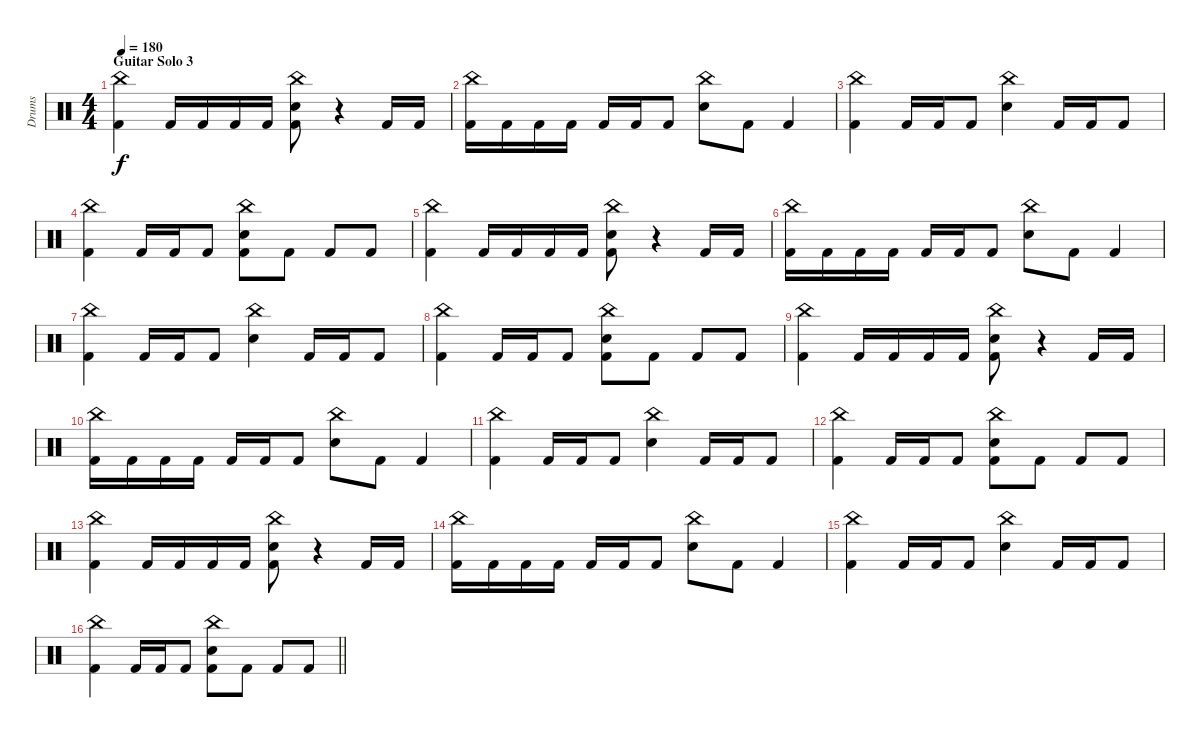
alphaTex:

\track ("Drums" "Drums") {instrument percussion}
\staff {score}
\articulation defaults
\ts (4 4)
\section ("" "Guitar Solo 3")
\tempo 180
\clef neutral
\ks c
("China (hit)" "Kick (hit) 2").4{dy f} "Kick (hit) 2".16 "Kick (hit) 2".16 "Kick (hit) 2".16 "Kick (hit) 2".16 ("China (hit)" "Electric Snare (hit)" "Kick (hit) 2").8 r.4 "Kick (hit) 2".16 "Kick (hit) 2".16 |
("China (hit)" "Kick (hit) 2").16 "Kick (hit) 2".16 "Kick (hit) 2".16 "Kick (hit) 2".16 "Kick (hit) 2".16 "Kick (hit) 2".16 "Kick (hit) 2".8 ("China (hit)" "Electric Snare (hit)").8 "Kick (hit) 2".8 "Kick (hit) 2".4 |
("China (hit)" "Kick (hit) 2").4 "Kick (hit) 2".16 "Kick (hit) 2".16 "Kick (hit) 2".8 ("China (hit)" "Electric Snare (hit)").4 "Kick (hit) 2".16 "Kick (hit) 2".16 "Kick (hit) 2".8 |
("China (hit)" "Kick (hit) 2").4 "Kick (hit) 2".16 "Kick (hit) 2".16 "Kick (hit) 2".8 ("China (hit)" "Electric Snare (hit)" "Kick (hit) 2").8 "Kick (hit) 2".8 "Kick (hit) 2".8 "Kick (hit) 2".8 |
("China (hit)" "Kick (hit) 2").4 "Kick (hit) 2".16 "Kick (hit) 2".16 "Kick (hit) 2".16 "Kick (hit) 2".16 ("China (hit)" "Electric Snare (hit)" "Kick (hit) 2").8 r.4 "Kick (hit) 2".16 "Kick (hit) 2".16 |
("China (hit)" "Kick (hit) 2").16 "Kick (hit) 2".16 "Kick (hit) 2".16 "Kick (hit) 2".16 "Kick (hit) 2".16 "Kick (hit) 2".16 "Kick (hit) 2".8 ("China (hit)" "Electric Snare (hit)").8 "Kick (hit) 2".8 "Kick (hit) 2".4 |
("China (hit)" "Kick (hit) 2").4 "Kick (hit) 2".16 "Kick (hit) 2".16 "Kick (hit) 2".8 ("China (hit)" "Electric Snare (hit)").4 "Kick (hit) 2".16 "Kick (hit) 2".16 "Kick (hit) 2".8 |
("China (hit)" "Kick (hit) 2").4 "Kick (hit) 2".16 "Kick (hit) 2".16 "Kick (hit) 2".8 ("China (hit)" "Electric Snare (hit)" "Kick (hit) 2").8 "Kick (hit) 2".8 "Kick (hit) 2".8 "Kick (hit) 2".8 |
("China (hit)" "Kick (hit) 2").4 "Kick (hit) 2".16 "Kick (hit) 2".16 "Kick (hit) 2".16 "Kick (hit) 2".16 ("China (hit)" "Electric Snare (hit)" "Kick (hit) 2").8 r.4 "Kick (hit) 2".16 "Kick (hit) 2".16 |
("China (hit)" "Kick (hit) 2").16 "Kick (hit) 2".16 "Kick (hit) 2".16 "Kick (hit) 2".16 "Kick (hit) 2".16 "Kick (hit) 2".16 "Kick (hit) 2".8 ("China (hit)" "Electric Snare (hit)").8 "Kick (hit) 2".8 "Kick (hit) 2".4 |
("China (hit)" "Kick (hit) 2").4 "Kick (hit) 2".16 "Kick (hit) 2".16 "Kick (hit) 2".8 ("China (hit)" "Electric Snare (hit)").4 "Kick (hit) 2".16 "Kick (hit) 2".16 "Kick (hit) 2".8 |
("China (hit)" "Kick (hit) 2").4 "Kick (hit) 2".16 "Kick (hit) 2".16 "Kick (hit) 2".8 ("China (hit)" "Electric Snare (hit)" "Kick (hit) 2").8 "Kick (hit) 2".8 "Kick (hit) 2".8 "Kick (hit) 2".8 |
("China (hit)" "Kick (hit) 2").4 "Kick (hit) 2".16 "Kick (hit) 2".16 "Kick (hit) 2".16 "Kick (hit) 2".16 ("China (hit)" "Electric Snare (hit)" "Kick (hit) 2").8 r.4 "Kick (hit) 2".16 "Kick (hit) 2".16 |
("China (hit)" "Kick (hit) 2").16 "Kick (hit) 2".16 "Kick (hit) 2".16 "Kick (hit) 2".16 "Kick (hit) 2".16 "Kick (hit) 2".16 "Kick (hit) 2".8 ("China (hit)" "Electric Snare (hit)").8 "Kick (hit) 2".8 "Kick (hit) 2".4 |
("China (hit)" "Kick (hit) 2").4 "Kick (hit) 2".16 "Kick (hit) 2".16 "Kick (hit) 2".8 ("China (hit)" "Electric Snare (hit)").4 "Kick (hit) 2".16 "Kick (hit) 2".16 "Kick (hit) 2".8 |
\barLineRight lightlight
("China (hit)" "Kick (hit) 2").4 "Kick (hit) 2".16 "Kick (hit) 2".16 "Kick (hit) 2".8 ("China (hit)" "Electric Snare (hit)" "Kick (hit) 2").8 "Kick (hit) 2".8 "Kick (hit) 2".8 "Kick (hit) 2".8
